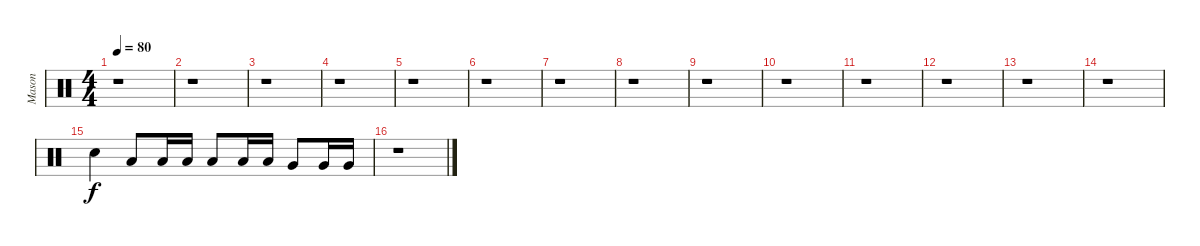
\track ("Mason" "Mason") {instrument percussion}
\staff {score}
\articulation defaults
\ts (4 4)
\tempo 80
\clef neutral
\ks c
r.1{dy f} |
r.1 |
r.1 |
r.1 |
r.1 |
r.1 |
r.1 |
r.1 |
r.1 |
r.1 |
r.1 |
r.1 |
r.1 |
r.1 |
"Snare (hit) 2".4 "Low Tom (hit)".8 "Low Tom (hit)".16 "Low Tom (hit)".16 "Low Floor Tom (hit)".8 "Low Floor Tom (hit)".16 "Low Floor Tom (hit)".16 "Very Low Tom (hit)".8 "Very Low Tom (hit)".16 "Very Low Tom (hit)".16 |
r.1
